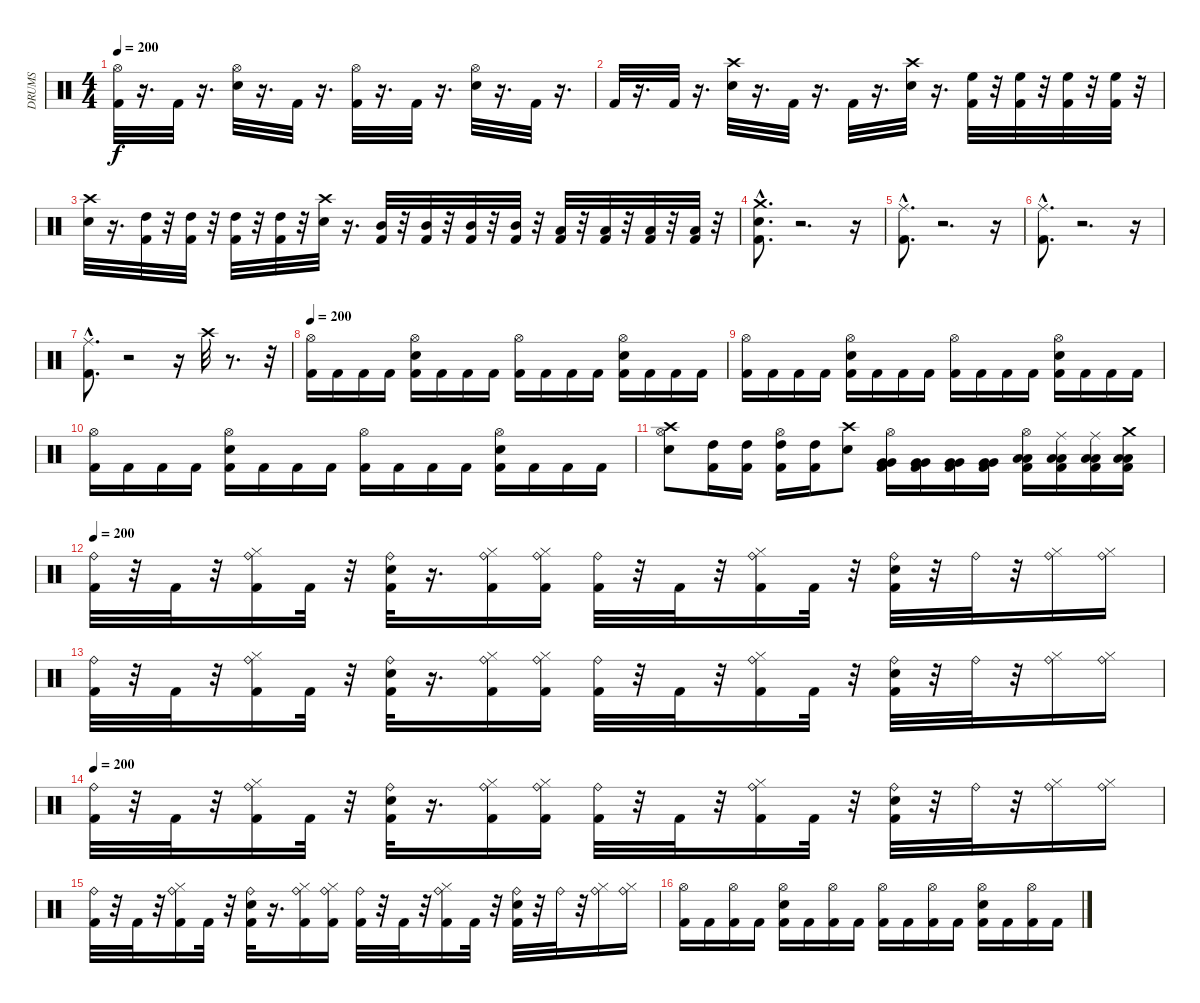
\track ("DRUMS" "DRUMS") {instrument percussion}
\staff {score}
\articulation defaults
\ts (4 4)
\tempo 200
\clef neutral
\ks c
("Hi-Hat (open)" "Kick (hit) 2").32{dy f} r.16{d} "Kick (hit) 2".32 r.16{d} ("Hi-Hat (open)" "Snare (hit) 2").32 r.16{d} "Kick (hit) 2".32 r.16{d} ("Hi-Hat (open)" "Kick (hit) 2").32 r.16{d} "Kick (hit) 2".32 r.16{d} ("Snare (hit) 2" "Hi-Hat (open)").32 r.16{d} "Kick (hit) 2".32 r.16{d} |
"Kick (hit) 2".32 r.16{d} "Kick (hit) 2".32 r.16{d} ("Snare (hit) 2" "Crash high (hit)").32 r.16{d} "Kick (hit) 2".32 r.16{d} "Kick (hit) 2".32 r.16{d} ("Snare (hit) 2" "Crash high (hit)").32 r.16{d} ("High Floor Tom (hit)" "Kick (hit) 2").32 r.32 ("Kick (hit) 2" "High Floor Tom (hit)").32 r.32 ("Kick (hit) 2" "High Floor Tom (hit)").32 r.32 ("High Floor Tom (hit)" "Kick (hit) 2").32 r.32 |
("Snare (hit) 2" "Crash high (hit)").32 r.16{d} ("High Tom (hit)" "Kick (hit) 2").32 r.32 ("Kick (hit) 2" "High Tom (hit)").32 r.32 ("Kick (hit) 2" "High Tom (hit)").32 r.32 ("Kick (hit) 2" "High Tom (hit)").32 r.32 ("Crash high (hit)" "Snare (hit) 2").32 r.16{d} ("Kick (hit) 2" "Mid Tom (hit)").32 r.32 ("Mid Tom (hit)" "Kick (hit) 2").32 r.32 ("Mid Tom (hit)" "Kick (hit) 2").32 r.32 ("Kick (hit) 2" "Mid Tom (hit)").32 r.32 ("Low Tom (hit)" "Kick (hit) 2").32 r.32 ("Low Tom (hit)" "Kick (hit) 2").32 r.32 ("Low Tom (hit)" "Kick (hit) 2").32 r.32 ("Low Tom (hit)" "Kick (hit) 2").32 r.32 |
("Crash medium (hit)"{hac} "Kick (hit) 2"{hac} "Snare (hit) 2"{hac}).8{d} r.2{d} r.16 |
("Ride (middle)"{hac} "Kick (hit) 2"{hac}).8{d} r.2{d} r.16 |
("Ride (middle)"{hac} "Kick (hit) 2"{hac}).8{d} r.2{d} r.16 |
("Ride (middle)"{hac} "Kick (hit) 2"{hac}).8{d} r.2 r.16 "Crash high (hit)".32 r.8{d} r.32 |
\tempo 200
("Kick (hit) 2" "Hi-Hat (open)").16 "Kick (hit) 2".16 "Kick (hit) 2".16 "Kick (hit) 2".16 ("Kick (hit) 2" "Snare (hit) 2" "Hi-Hat (open)").16 "Kick (hit) 2".16 "Kick (hit) 2".16 "Kick (hit) 2".16 ("Kick (hit) 2" "Hi-Hat (open)").16 "Kick (hit) 2".16 "Kick (hit) 2".16 "Kick (hit) 2".16 ("Kick (hit) 2" "Snare (hit) 2" "Hi-Hat (open)").16 "Kick (hit) 2".16 "Kick (hit) 2".16 "Kick (hit) 2".16 |
("Kick (hit) 2" "Hi-Hat (open)").16 "Kick (hit) 2".16 "Kick (hit) 2".16 "Kick (hit) 2".16 ("Kick (hit) 2" "Snare (hit) 2" "Hi-Hat (open)").16 "Kick (hit) 2".16 "Kick (hit) 2".16 "Kick (hit) 2".16 ("Kick (hit) 2" "Hi-Hat (open)").16 "Kick (hit) 2".16 "Kick (hit) 2".16 "Kick (hit) 2".16 ("Kick (hit) 2" "Snare (hit) 2" "Hi-Hat (open)").16 "Kick (hit) 2".16 "Kick (hit) 2".16 "Kick (hit) 2".16 |
("Kick (hit) 2" "Hi-Hat (open)").16 "Kick (hit) 2".16 "Kick (hit) 2".16 "Kick (hit) 2".16 ("Kick (hit) 2" "Snare (hit) 2" "Hi-Hat (open)").16 "Kick (hit) 2".16 "Kick (hit) 2".16 "Kick (hit) 2".16 ("Kick (hit) 2" "Hi-Hat (open)").16 "Kick (hit) 2".16 "Kick (hit) 2".16 "Kick (hit) 2".16 ("Kick (hit) 2" "Snare (hit) 2" "Hi-Hat (open)").16 "Kick (hit) 2".16 "Kick (hit) 2".16 "Kick (hit) 2".16 |
("Snare (hit) 2" "Crash high (hit)" "Hi-Hat (open)").8 ("Kick (hit) 2" "High Tom (hit)").16 ("Kick (hit) 2" "High Tom (hit)").16 ("Kick (hit) 2" "High Tom (hit)" "Hi-Hat (open)").16 ("Kick (hit) 2" "High Tom (hit)").16 ("Snare (hit) 2" "Crash high (hit)").8 ("Kick (hit) 2" "Very Low Tom (hit)" "Very Low Tom (hit)" "Hi-Hat (open)").16 ("Kick (hit) 2" "Very Low Tom (hit)" "Very Low Tom (hit)").16 ("Kick (hit) 2" "Very Low Tom (hit)" "Very Low Tom (hit)").16 ("Kick (hit) 2" "Very Low Tom (hit)" "Very Low Tom (hit)").16 ("Kick (hit) 2" "Low Floor Tom (hit)" "Low Floor Tom (hit)" "Hi-Hat (open)").16 ("Kick (hit) 2" "Low Floor Tom (hit)" "Low Floor Tom (hit)" "Ride (middle)").16 ("Kick (hit) 2" "Low Floor Tom (hit)" "Low Floor Tom (hit)" "Ride (middle)").16 ("Kick (hit) 2" "Low Floor Tom (hit)" "Low Floor Tom (hit)" "Crash medium (hit)").16 |
\tempo 200
("Kick (hit) 2" "Ride (bell)").32 r.32 "Kick (hit) 2".32 r.32 ("Hi-Hat (closed)" "Kick (hit) 2" "Ride (bell)").16 "Kick (hit) 2".32 r.32 ("Snare (hit) 2" "Ride (bell)" "Kick (hit) 2").32 r.16{d} ("Hi-Hat (closed)" "Kick (hit) 2" "Ride (bell)").16 ("Hi-Hat (closed)" "Kick (hit) 2" "Ride (bell)").16 ("Ride (bell)" "Kick (hit) 2").32 r.32 "Kick (hit) 2".32 r.32 ("Hi-Hat (closed)" "Kick (hit) 2" "Ride (bell)").16 "Kick (hit) 2".32 r.32 ("Ride (bell)" "Snare (hit) 2" "Kick (hit) 2").32 r.32 "Ride (bell)".32 r.32 ("Hi-Hat (closed)" "Ride (bell)").16 ("Hi-Hat (closed)" "Ride (bell)").16 |
("Kick (hit) 2" "Ride (bell)").32 r.32 "Kick (hit) 2".32 r.32 ("Hi-Hat (closed)" "Kick (hit) 2" "Ride (bell)").16 "Kick (hit) 2".32 r.32 ("Snare (hit) 2" "Ride (bell)" "Kick (hit) 2").32 r.16{d} ("Hi-Hat (closed)" "Kick (hit) 2" "Ride (bell)").16 ("Hi-Hat (closed)" "Kick (hit) 2" "Ride (bell)").16 ("Ride (bell)" "Kick (hit) 2").32 r.32 "Kick (hit) 2".32 r.32 ("Hi-Hat (closed)" "Kick (hit) 2" "Ride (bell)").16 "Kick (hit) 2".32 r.32 ("Ride (bell)" "Snare (hit) 2" "Kick (hit) 2").32 r.32 "Ride (bell)".32 r.32 ("Hi-Hat (closed)" "Ride (bell)").16 ("Hi-Hat (closed)" "Ride (bell)").16 |
\tempo 200
("Kick (hit) 2" "Ride (bell)").32 r.32 "Kick (hit) 2".32 r.32 ("Hi-Hat (closed)" "Kick (hit) 2" "Ride (bell)").16 "Kick (hit) 2".32 r.32 ("Snare (hit) 2" "Ride (bell)" "Kick (hit) 2").32 r.16{d} ("Hi-Hat (closed)" "Kick (hit) 2" "Ride (bell)").16 ("Hi-Hat (closed)" "Kick (hit) 2" "Ride (bell)").16 ("Ride (bell)" "Kick (hit) 2").32 r.32 "Kick (hit) 2".32 r.32 ("Hi-Hat (closed)" "Kick (hit) 2" "Ride (bell)").16 "Kick (hit) 2".32 r.32 ("Ride (bell)" "Snare (hit) 2" "Kick (hit) 2").32 r.32 "Ride (bell)".32 r.32 ("Hi-Hat (closed)" "Ride (bell)").16 ("Hi-Hat (closed)" "Ride (bell)").16 |
("Kick (hit) 2" "Ride (bell)").32 r.32 "Kick (hit) 2".32 r.32 ("Hi-Hat (closed)" "Kick (hit) 2" "Ride (bell)").16 "Kick (hit) 2".32 r.32 ("Snare (hit) 2" "Ride (bell)" "Kick (hit) 2").32 r.16{d} ("Hi-Hat (closed)" "Kick (hit) 2" "Ride (bell)").16 ("Hi-Hat (closed)" "Kick (hit) 2" "Ride (bell)").16 ("Ride (bell)" "Kick (hit) 2").32 r.32 "Kick (hit) 2".32 r.32 ("Hi-Hat (closed)" "Kick (hit) 2" "Ride (bell)").16 "Kick (hit) 2".32 r.32 ("Ride (bell)" "Snare (hit) 2" "Kick (hit) 2").32 r.32 "Ride (bell)".32 r.32 ("Hi-Hat (closed)" "Ride (bell)").16 ("Hi-Hat (closed)" "Ride (bell)").16 |
("Kick (hit) 2" "Hi-Hat (open)").16 "Kick (hit) 2".16 ("Kick (hit) 2" "Hi-Hat (open)").16 "Kick (hit) 2".16 ("Kick (hit) 2" "Snare (hit) 2" "Hi-Hat (open)").16 "Kick (hit) 2".16 ("Kick (hit) 2" "Hi-Hat (open)").16 "Kick (hit) 2".16 ("Kick (hit) 2" "Hi-Hat (open)").16 "Kick (hit) 2".16 ("Kick (hit) 2" "Hi-Hat (open)").16 "Kick (hit) 2".16 ("Kick (hit) 2" "Snare (hit) 2" "Hi-Hat (open)").16 "Kick (hit) 2".16 ("Kick (hit) 2" "Hi-Hat (open)").16 "Kick (hit) 2".16
